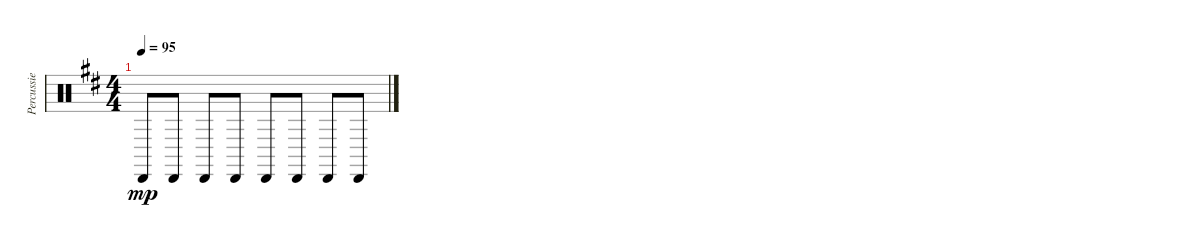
\track ("Percussie" "Percussie") {instrument percussion}
\staff {score}
\articulation defaults
\ts (4 4)
\tempo 95
\clef neutral
\ks d "Cabasa (hit)".8{dy mp} "Cabasa (hit)".8 "Cabasa (hit)".8 "Cabasa (hit)".8 "Cabasa (hit)".8 "Cabasa (hit)".8 "Cabasa (hit)".8 "Cabasa (hit)".8
